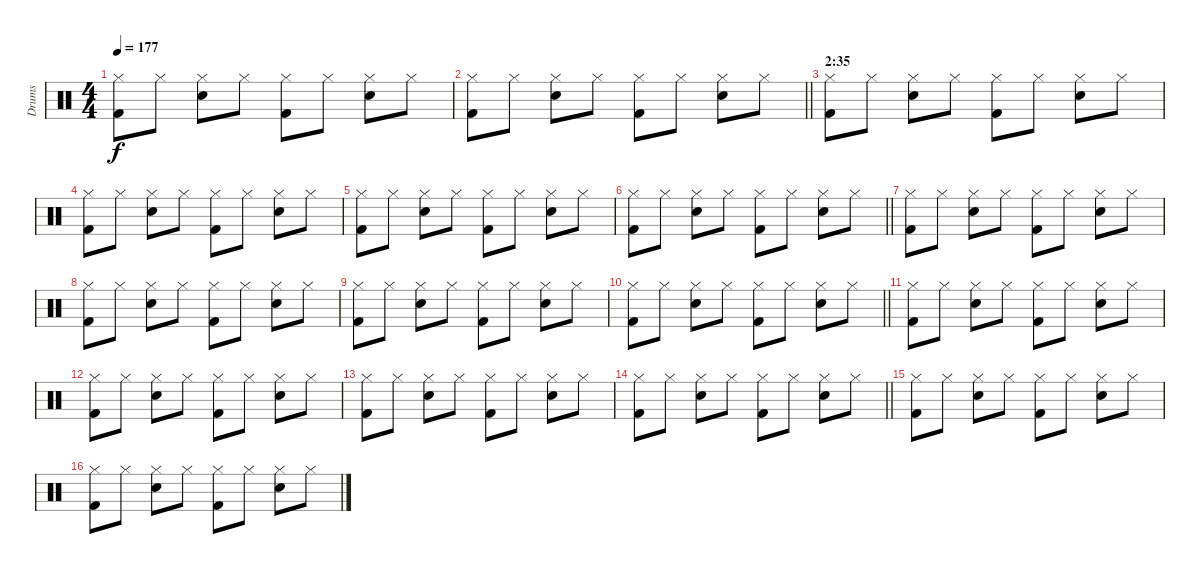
\track ("Drums" "Drums") {instrument percussion}
\staff {score}
\articulation defaults
\ts (4 4)
\tempo 177
\clef neutral
\ks c
("Hi-Hat (closed)" "Kick (hit) 2").8{dy f} "Hi-Hat (closed)".8 ("Hi-Hat (closed)" "Snare (hit) 2").8 "Hi-Hat (closed)".8 ("Hi-Hat (closed)" "Kick (hit) 2").8 "Hi-Hat (closed)".8 ("Hi-Hat (closed)" "Snare (hit) 2").8 "Hi-Hat (closed)".8 |
\barLineRight lightlight
("Hi-Hat (closed)" "Kick (hit) 2").8 "Hi-Hat (closed)".8 ("Hi-Hat (closed)" "Snare (hit) 2").8 "Hi-Hat (closed)".8 ("Hi-Hat (closed)" "Kick (hit) 2").8 "Hi-Hat (closed)".8 ("Hi-Hat (closed)" "Snare (hit) 2").8 "Hi-Hat (closed)".8 |
\section ("" "2:35")
("Hi-Hat (closed)" "Kick (hit) 2").8 "Hi-Hat (closed)".8 ("Hi-Hat (closed)" "Snare (hit) 2").8 "Hi-Hat (closed)".8 ("Hi-Hat (closed)" "Kick (hit) 2").8 "Hi-Hat (closed)".8 ("Hi-Hat (closed)" "Snare (hit) 2").8 "Hi-Hat (closed)".8 |
("Hi-Hat (closed)" "Kick (hit) 2").8 "Hi-Hat (closed)".8 ("Hi-Hat (closed)" "Snare (hit) 2").8 "Hi-Hat (closed)".8 ("Hi-Hat (closed)" "Kick (hit) 2").8 "Hi-Hat (closed)".8 ("Hi-Hat (closed)" "Snare (hit) 2").8 "Hi-Hat (closed)".8 |
("Hi-Hat (closed)" "Kick (hit) 2").8 "Hi-Hat (closed)".8 ("Hi-Hat (closed)" "Snare (hit) 2").8 "Hi-Hat (closed)".8 ("Hi-Hat (closed)" "Kick (hit) 2").8 "Hi-Hat (closed)".8 ("Hi-Hat (closed)" "Snare (hit) 2").8 "Hi-Hat (closed)".8 |
\barLineRight lightlight
("Hi-Hat (closed)" "Kick (hit) 2").8 "Hi-Hat (closed)".8 ("Hi-Hat (closed)" "Snare (hit) 2").8 "Hi-Hat (closed)".8 ("Hi-Hat (closed)" "Kick (hit) 2").8 "Hi-Hat (closed)".8 ("Hi-Hat (closed)" "Snare (hit) 2").8 "Hi-Hat (closed)".8 |
("Hi-Hat (closed)" "Kick (hit) 2").8 "Hi-Hat (closed)".8 ("Hi-Hat (closed)" "Snare (hit) 2").8 "Hi-Hat (closed)".8 ("Hi-Hat (closed)" "Kick (hit) 2").8 "Hi-Hat (closed)".8 ("Hi-Hat (closed)" "Snare (hit) 2").8 "Hi-Hat (closed)".8 |
("Hi-Hat (closed)" "Kick (hit) 2").8 "Hi-Hat (closed)".8 ("Hi-Hat (closed)" "Snare (hit) 2").8 "Hi-Hat (closed)".8 ("Hi-Hat (closed)" "Kick (hit) 2").8 "Hi-Hat (closed)".8 ("Hi-Hat (closed)" "Snare (hit) 2").8 "Hi-Hat (closed)".8 |
("Hi-Hat (closed)" "Kick (hit) 2").8 "Hi-Hat (closed)".8 ("Hi-Hat (closed)" "Snare (hit) 2").8 "Hi-Hat (closed)".8 ("Hi-Hat (closed)" "Kick (hit) 2").8 "Hi-Hat (closed)".8 ("Hi-Hat (closed)" "Snare (hit) 2").8 "Hi-Hat (closed)".8 |
\barLineRight lightlight
("Hi-Hat (closed)" "Kick (hit) 2").8 "Hi-Hat (closed)".8 ("Hi-Hat (closed)" "Snare (hit) 2").8 "Hi-Hat (closed)".8 ("Hi-Hat (closed)" "Kick (hit) 2").8 "Hi-Hat (closed)".8 ("Hi-Hat (closed)" "Snare (hit) 2").8 "Hi-Hat (closed)".8 |
("Hi-Hat (closed)" "Kick (hit) 2").8 "Hi-Hat (closed)".8 ("Hi-Hat (closed)" "Snare (hit) 2").8 "Hi-Hat (closed)".8 ("Hi-Hat (closed)" "Kick (hit) 2").8 "Hi-Hat (closed)".8 ("Hi-Hat (closed)" "Snare (hit) 2").8 "Hi-Hat (closed)".8 |
("Hi-Hat (closed)" "Kick (hit) 2").8 "Hi-Hat (closed)".8 ("Hi-Hat (closed)" "Snare (hit) 2").8 "Hi-Hat (closed)".8 ("Hi-Hat (closed)" "Kick (hit) 2").8 "Hi-Hat (closed)".8 ("Hi-Hat (closed)" "Snare (hit) 2").8 "Hi-Hat (closed)".8 |
("Hi-Hat (closed)" "Kick (hit) 2").8 "Hi-Hat (closed)".8 ("Hi-Hat (closed)" "Snare (hit) 2").8 "Hi-Hat (closed)".8 ("Hi-Hat (closed)" "Kick (hit) 2").8 "Hi-Hat (closed)".8 ("Hi-Hat (closed)" "Snare (hit) 2").8 "Hi-Hat (closed)".8 |
\barLineRight lightlight
("Hi-Hat (closed)" "Kick (hit) 2").8 "Hi-Hat (closed)".8 ("Hi-Hat (closed)" "Snare (hit) 2").8 "Hi-Hat (closed)".8 ("Hi-Hat (closed)" "Kick (hit) 2").8 "Hi-Hat (closed)".8 ("Hi-Hat (closed)" "Snare (hit) 2").8 "Hi-Hat (closed)".8 |
("Hi-Hat (closed)" "Kick (hit) 2").8 "Hi-Hat (closed)".8 ("Hi-Hat (closed)" "Snare (hit) 2").8 "Hi-Hat (closed)".8 ("Hi-Hat (closed)" "Kick (hit) 2").8 "Hi-Hat (closed)".8 ("Hi-Hat (closed)" "Snare (hit) 2").8 "Hi-Hat (closed)".8 |
("Hi-Hat (closed)" "Kick (hit) 2").8 "Hi-Hat (closed)".8 ("Hi-Hat (closed)" "Snare (hit) 2").8 "Hi-Hat (closed)".8 ("Hi-Hat (closed)" "Kick (hit) 2").8 "Hi-Hat (closed)".8 ("Hi-Hat (closed)" "Snare (hit) 2").8 "Hi-Hat (closed)".8
